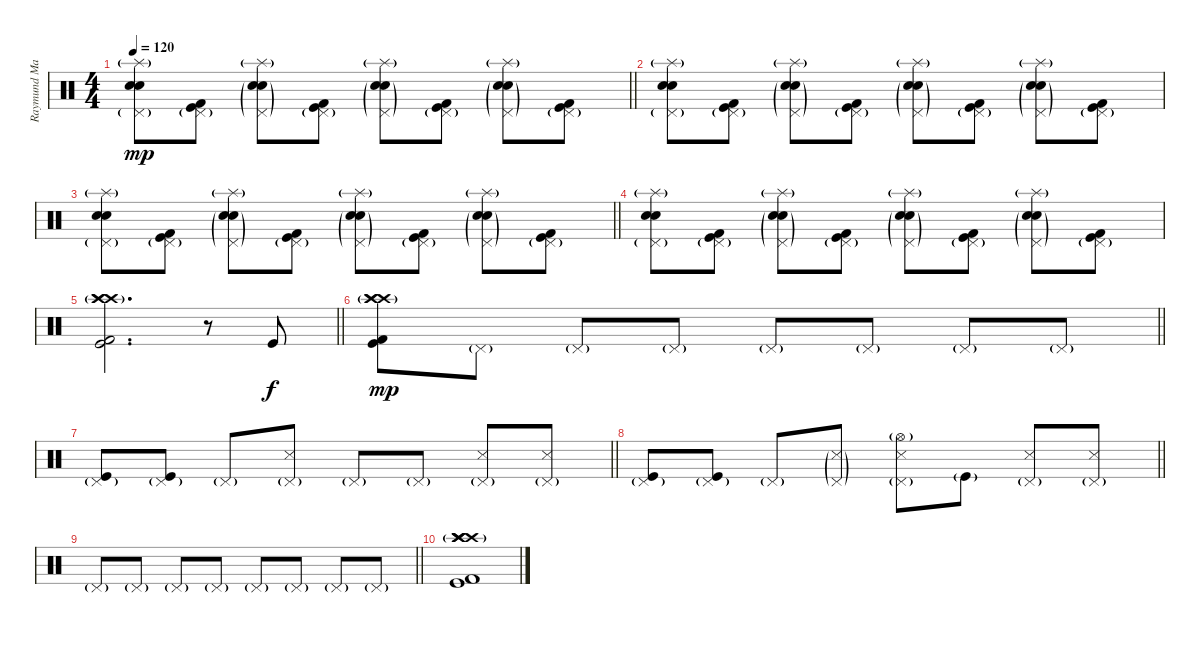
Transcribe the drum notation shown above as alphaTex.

\track ("Raymund Marasigan(Drums)" "Raymund Ma") {instrument percussion}
\staff {score}
\articulation defaults
\ts (4 4)
\tempo 120
\clef neutral
\barLineRight lightlight
\ks c
("Pedal Hi-Hat (hit)"{g} "Electric Snare (hit)" "Snare (hit) 2" "Splash (hit)"{g}).8{dy mp} ("Pedal Hi-Hat (hit)"{g} "Kick (hit) 2" "Kick (hit)").8 ("Pedal Hi-Hat (hit)"{g} "Electric Snare (hit)" "Snare (hit) 2"{g} "Splash (hit)"{g}).8 ("Pedal Hi-Hat (hit)"{g} "Kick (hit) 2" "Kick (hit)").8 ("Pedal Hi-Hat (hit)"{g} "Electric Snare (hit)" "Snare (hit) 2"{g} "Splash (hit)"{g}).8 ("Pedal Hi-Hat (hit)"{g} "Kick (hit) 2" "Kick (hit)").8 ("Pedal Hi-Hat (hit)"{g} "Electric Snare (hit)" "Snare (hit) 2"{g} "Splash (hit)"{g}).8 ("Pedal Hi-Hat (hit)"{g} "Kick (hit) 2" "Kick (hit)").8 |
("Pedal Hi-Hat (hit)"{g} "Electric Snare (hit)" "Snare (hit) 2" "Splash (hit)"{g}).8 ("Pedal Hi-Hat (hit)"{g} "Kick (hit) 2" "Kick (hit)").8 ("Pedal Hi-Hat (hit)"{g} "Electric Snare (hit)" "Snare (hit) 2"{g} "Splash (hit)"{g}).8 ("Pedal Hi-Hat (hit)"{g} "Kick (hit) 2" "Kick (hit)").8 ("Pedal Hi-Hat (hit)"{g} "Electric Snare (hit)" "Snare (hit) 2"{g} "Splash (hit)"{g}).8 ("Pedal Hi-Hat (hit)"{g} "Kick (hit) 2" "Kick (hit)").8 ("Pedal Hi-Hat (hit)"{g} "Electric Snare (hit)" "Snare (hit) 2"{g} "Splash (hit)"{g}).8 ("Pedal Hi-Hat (hit)"{g} "Kick (hit) 2" "Kick (hit)").8 |
\barLineRight lightlight
("Pedal Hi-Hat (hit)"{g} "Electric Snare (hit)" "Snare (hit) 2" "Splash (hit)"{g}).8 ("Pedal Hi-Hat (hit)"{g} "Kick (hit) 2" "Kick (hit)").8 ("Pedal Hi-Hat (hit)"{g} "Electric Snare (hit)" "Snare (hit) 2"{g} "Splash (hit)"{g}).8 ("Pedal Hi-Hat (hit)"{g} "Kick (hit) 2" "Kick (hit)").8 ("Pedal Hi-Hat (hit)"{g} "Electric Snare (hit)" "Snare (hit) 2"{g} "Splash (hit)"{g}).8 ("Pedal Hi-Hat (hit)"{g} "Kick (hit) 2" "Kick (hit)").8 ("Pedal Hi-Hat (hit)"{g} "Electric Snare (hit)" "Snare (hit) 2"{g} "Splash (hit)"{g}).8 ("Pedal Hi-Hat (hit)"{g} "Kick (hit) 2" "Kick (hit)").8 |
("Pedal Hi-Hat (hit)"{g} "Electric Snare (hit)" "Snare (hit) 2" "Splash (hit)"{g}).8 ("Pedal Hi-Hat (hit)"{g} "Kick (hit) 2" "Kick (hit)").8 ("Pedal Hi-Hat (hit)"{g} "Electric Snare (hit)" "Snare (hit) 2"{g} "Splash (hit)"{g}).8 ("Pedal Hi-Hat (hit)"{g} "Kick (hit) 2" "Kick (hit)").8 ("Pedal Hi-Hat (hit)"{g} "Electric Snare (hit)" "Snare (hit) 2"{g} "Splash (hit)"{g}).8 ("Pedal Hi-Hat (hit)"{g} "Kick (hit) 2" "Kick (hit)").8 ("Pedal Hi-Hat (hit)"{g} "Electric Snare (hit)" "Snare (hit) 2"{g} "Splash (hit)"{g}).8 ("Pedal Hi-Hat (hit)"{g} "Kick (hit) 2" "Kick (hit)").8 |
\barLineRight lightlight
("Crash high (hit)"{g} "Crash high (hit)"{g} "Crash high (hit)"{g} "Kick (hit) 2" "Kick (hit)").2{d} r.8 "Kick (hit)".8{dy f} |
\barLineRight lightlight
("Crash high (hit)"{g} "Crash high (hit)"{g} "Crash high (hit)"{g} "Kick (hit) 2" "Kick (hit)").8{dy mp} "Pedal Hi-Hat (hit)"{g}.8 "Pedal Hi-Hat (hit)"{g}.8 "Pedal Hi-Hat (hit)"{g}.8 "Pedal Hi-Hat (hit)"{g}.8 "Pedal Hi-Hat (hit)"{g}.8 "Pedal Hi-Hat (hit)"{g}.8 "Pedal Hi-Hat (hit)"{g}.8 |
\barLineRight lightlight
("Pedal Hi-Hat (hit)"{g} "Kick (hit)").8 ("Pedal Hi-Hat (hit)"{g} "Kick (hit)").8 "Pedal Hi-Hat (hit)"{g}.8 ("Pedal Hi-Hat (hit)"{g} "Snare (side stick) 3").8 "Pedal Hi-Hat (hit)"{g}.8 "Pedal Hi-Hat (hit)"{g}.8 ("Pedal Hi-Hat (hit)"{g} "Snare (side stick) 3").8 ("Pedal Hi-Hat (hit)"{g} "Snare (side stick) 3").8 |
\barLineRight lightlight
("Pedal Hi-Hat (hit)"{g} "Kick (hit)").8 ("Pedal Hi-Hat (hit)"{g} "Kick (hit)").8 "Pedal Hi-Hat (hit)"{g}.8 ("Pedal Hi-Hat (hit)"{g} "Snare (side stick) 3"{g}).8 ("Pedal Hi-Hat (hit)"{g} "Snare (side stick) 3" "Hi-Hat (open)"{g}).8 "Kick (hit)"{g}.8 ("Pedal Hi-Hat (hit)"{g} "Snare (side stick) 3").8 ("Pedal Hi-Hat (hit)"{g} "Snare (side stick) 3").8 |
\barLineRight lightlight "Pedal Hi-Hat (hit)"{g}.8 "Pedal Hi-Hat (hit)"{g}.8 "Pedal Hi-Hat (hit)"{g}.8 "Pedal Hi-Hat (hit)"{g}.8 "Pedal Hi-Hat (hit)"{g}.8 "Pedal Hi-Hat (hit)"{g}.8 "Pedal Hi-Hat (hit)"{g}.8 "Pedal Hi-Hat (hit)"{g}.8
|
("Crash high (hit)"{g} "Crash high (hit)"{g} "Crash high (hit)"{g} "Crash high (hit)"{g} "Kick (hit) 2" "Kick (hit)").1
